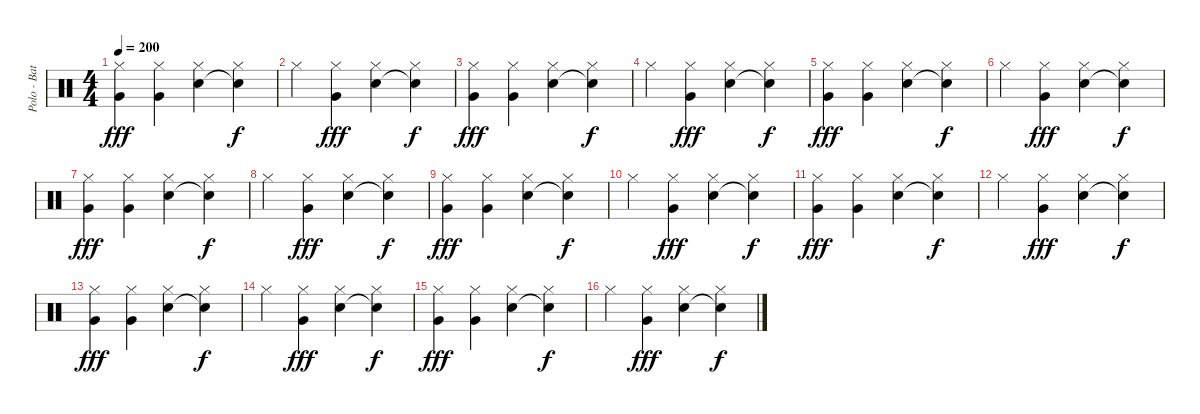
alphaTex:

\track ("Polo - Batería" "Polo - Bat") {instrument percussion}
\staff {score}
\articulation defaults
\ts (4 4)
\tempo 200
\clef neutral
\ks c
("Hi-Hat (closed)" "Very Low Tom (hit)").4{dy fff} ("Hi-Hat (closed)" "Very Low Tom (hit)").4 ("Hi-Hat (closed)" "Electric Snare (hit)").4 ("Hi-Hat (closed)" "Snare (hit)"{t}).4{dy f} |
"Hi-Hat (closed)".4 ("Hi-Hat (closed)" "Very Low Tom (hit)").4{dy fff} ("Hi-Hat (closed)" "Electric Snare (hit)").4 ("Hi-Hat (closed)" "Snare (hit)"{t}).4{dy f} |
("Hi-Hat (closed)" "Very Low Tom (hit)").4{dy fff} ("Hi-Hat (closed)" "Very Low Tom (hit)").4 ("Hi-Hat (closed)" "Electric Snare (hit)").4 ("Hi-Hat (closed)" "Snare (hit)"{t}).4{dy f} |
"Hi-Hat (closed)".4 ("Hi-Hat (closed)" "Very Low Tom (hit)").4{dy fff} ("Hi-Hat (closed)" "Electric Snare (hit)").4 ("Hi-Hat (closed)" "Snare (hit)"{t}).4{dy f} |
("Hi-Hat (closed)" "Very Low Tom (hit)").4{dy fff} ("Hi-Hat (closed)" "Very Low Tom (hit)").4 ("Hi-Hat (closed)" "Electric Snare (hit)").4 ("Hi-Hat (closed)" "Snare (hit)"{t}).4{dy f} |
"Hi-Hat (closed)".4 ("Hi-Hat (closed)" "Very Low Tom (hit)").4{dy fff} ("Hi-Hat (closed)" "Electric Snare (hit)").4 ("Hi-Hat (closed)" "Snare (hit)"{t}).4{dy f} |
("Hi-Hat (closed)" "Very Low Tom (hit)").4{dy fff} ("Hi-Hat (closed)" "Very Low Tom (hit)").4 ("Hi-Hat (closed)" "Electric Snare (hit)").4 ("Hi-Hat (closed)" "Snare (hit)"{t}).4{dy f} |
"Hi-Hat (closed)".4 ("Hi-Hat (closed)" "Very Low Tom (hit)").4{dy fff} ("Hi-Hat (closed)" "Electric Snare (hit)").4 ("Hi-Hat (closed)" "Snare (hit)"{t}).4{dy f} |
("Hi-Hat (closed)" "Very Low Tom (hit)").4{dy fff} ("Hi-Hat (closed)" "Very Low Tom (hit)").4 ("Hi-Hat (closed)" "Electric Snare (hit)").4 ("Hi-Hat (closed)" "Snare (hit)"{t}).4{dy f} |
"Hi-Hat (closed)".4 ("Hi-Hat (closed)" "Very Low Tom (hit)").4{dy fff} ("Hi-Hat (closed)" "Electric Snare (hit)").4 ("Hi-Hat (closed)" "Snare (hit)"{t}).4{dy f} |
("Hi-Hat (closed)" "Very Low Tom (hit)").4{dy fff} ("Hi-Hat (closed)" "Very Low Tom (hit)").4 ("Hi-Hat (closed)" "Electric Snare (hit)").4 ("Hi-Hat (closed)" "Snare (hit)"{t}).4{dy f} |
"Hi-Hat (closed)".4 ("Hi-Hat (closed)" "Very Low Tom (hit)").4{dy fff} ("Hi-Hat (closed)" "Electric Snare (hit)").4 ("Hi-Hat (closed)" "Snare (hit)"{t}).4{dy f} |
("Hi-Hat (closed)" "Very Low Tom (hit)").4{dy fff} ("Hi-Hat (closed)" "Very Low Tom (hit)").4 ("Hi-Hat (closed)" "Electric Snare (hit)").4 ("Hi-Hat (closed)" "Snare (hit)"{t}).4{dy f} |
"Hi-Hat (closed)".4 ("Hi-Hat (closed)" "Very Low Tom (hit)").4{dy fff} ("Hi-Hat (closed)" "Electric Snare (hit)").4 ("Hi-Hat (closed)" "Snare (hit)"{t}).4{dy f} |
("Hi-Hat (closed)" "Very Low Tom (hit)").4{dy fff} ("Hi-Hat (closed)" "Very Low Tom (hit)").4 ("Hi-Hat (closed)" "Electric Snare (hit)").4 ("Hi-Hat (closed)" "Snare (hit)"{t}).4{dy f} |
"Hi-Hat (closed)".4 ("Hi-Hat (closed)" "Very Low Tom (hit)").4{dy fff} ("Hi-Hat (closed)" "Electric Snare (hit)").4 ("Hi-Hat (closed)" "Snare (hit)"{t}).4{dy f}
